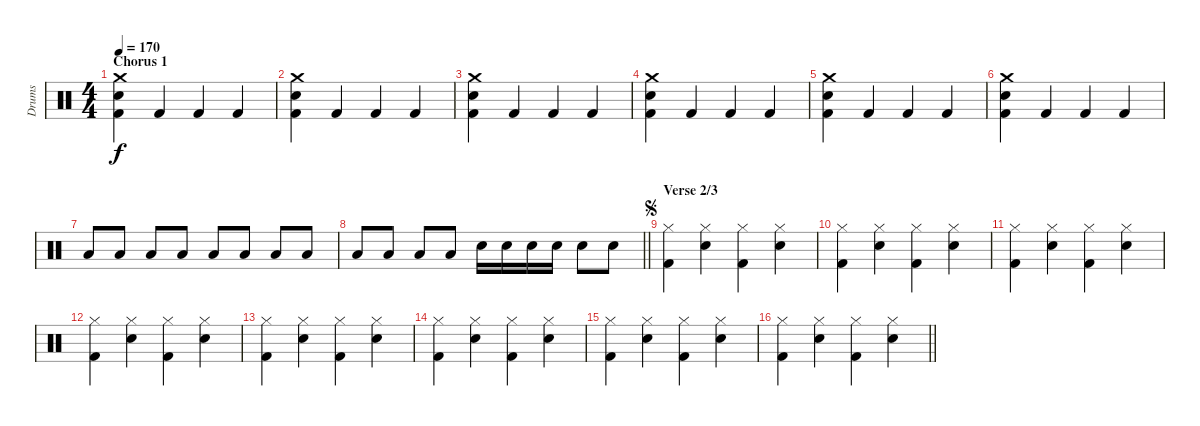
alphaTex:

\track ("Drums" "Drums") {instrument percussion}
\staff {score}
\articulation defaults
\ts (4 4)
\section ("" "Chorus 1")
\tempo 170
\clef neutral
\ks c
("Crash medium (hit)" "Electric Snare (hit)" "Kick (hit) 2").4{dy f} "Kick (hit) 2".4 "Kick (hit) 2".4 "Kick (hit) 2".4 |
("Crash medium (hit)" "Electric Snare (hit)" "Kick (hit) 2").4 "Kick (hit) 2".4 "Kick (hit) 2".4 "Kick (hit) 2".4 |
("Crash medium (hit)" "Electric Snare (hit)" "Kick (hit) 2").4 "Kick (hit) 2".4 "Kick (hit) 2".4 "Kick (hit) 2".4 |
("Crash medium (hit)" "Electric Snare (hit)" "Kick (hit) 2").4 "Kick (hit) 2".4 "Kick (hit) 2".4 "Kick (hit) 2".4 |
("Crash medium (hit)" "Electric Snare (hit)" "Kick (hit) 2").4 "Kick (hit) 2".4 "Kick (hit) 2".4 "Kick (hit) 2".4 |
("Crash medium (hit)" "Electric Snare (hit)" "Kick (hit) 2").4 "Kick (hit) 2".4 "Kick (hit) 2".4 "Kick (hit) 2".4 |
"Low Floor Tom (hit)".8 "Low Floor Tom (hit)".8 "Low Floor Tom (hit)".8 "Low Floor Tom (hit)".8 "Low Floor Tom (hit)".8 "Low Floor Tom (hit)".8 "Low Floor Tom (hit)".8 "Low Floor Tom (hit)".8 |
\barLineRight lightlight "Low Floor Tom (hit)".8 "Low Floor Tom (hit)".8 "Low Floor Tom (hit)".8 "Low Floor Tom (hit)".8 "Electric Snare (hit)".16 "Electric Snare (hit)".16 "Electric Snare (hit)".16 "Electric Snare (hit)".16 "Electric Snare (hit)".8 "Electric Snare (hit)".8
|
\section ("" "Verse 2/3")
\jump segno
("Hi-Hat (closed)" "Kick (hit) 2").4 ("Hi-Hat (closed)" "Electric Snare (hit)").4 ("Hi-Hat (closed)" "Kick (hit) 2").4 ("Hi-Hat (closed)" "Electric Snare (hit)").4 |
("Hi-Hat (closed)" "Kick (hit) 2").4 ("Hi-Hat (closed)" "Electric Snare (hit)").4 ("Hi-Hat (closed)" "Kick (hit) 2").4 ("Hi-Hat (closed)" "Electric Snare (hit)").4 |
("Hi-Hat (closed)" "Kick (hit) 2").4 ("Hi-Hat (closed)" "Electric Snare (hit)").4 ("Hi-Hat (closed)" "Kick (hit) 2").4 ("Hi-Hat (closed)" "Electric Snare (hit)").4 |
("Hi-Hat (closed)" "Kick (hit) 2").4 ("Hi-Hat (closed)" "Electric Snare (hit)").4 ("Hi-Hat (closed)" "Kick (hit) 2").4 ("Hi-Hat (closed)" "Electric Snare (hit)").4 |
("Hi-Hat (closed)" "Kick (hit) 2").4 ("Hi-Hat (closed)" "Electric Snare (hit)").4 ("Hi-Hat (closed)" "Kick (hit) 2").4 ("Hi-Hat (closed)" "Electric Snare (hit)").4 |
("Hi-Hat (closed)" "Kick (hit) 2").4 ("Hi-Hat (closed)" "Electric Snare (hit)").4 ("Hi-Hat (closed)" "Kick (hit) 2").4 ("Hi-Hat (closed)" "Electric Snare (hit)").4 |
("Hi-Hat (closed)" "Kick (hit) 2").4 ("Hi-Hat (closed)" "Electric Snare (hit)").4 ("Hi-Hat (closed)" "Kick (hit) 2").4 ("Hi-Hat (closed)" "Electric Snare (hit)").4 |
\barLineRight lightlight
("Hi-Hat (closed)" "Kick (hit) 2").4 ("Hi-Hat (closed)" "Electric Snare (hit)").4 ("Hi-Hat (closed)" "Kick (hit) 2").4 ("Hi-Hat (closed)" "Electric Snare (hit)").4
